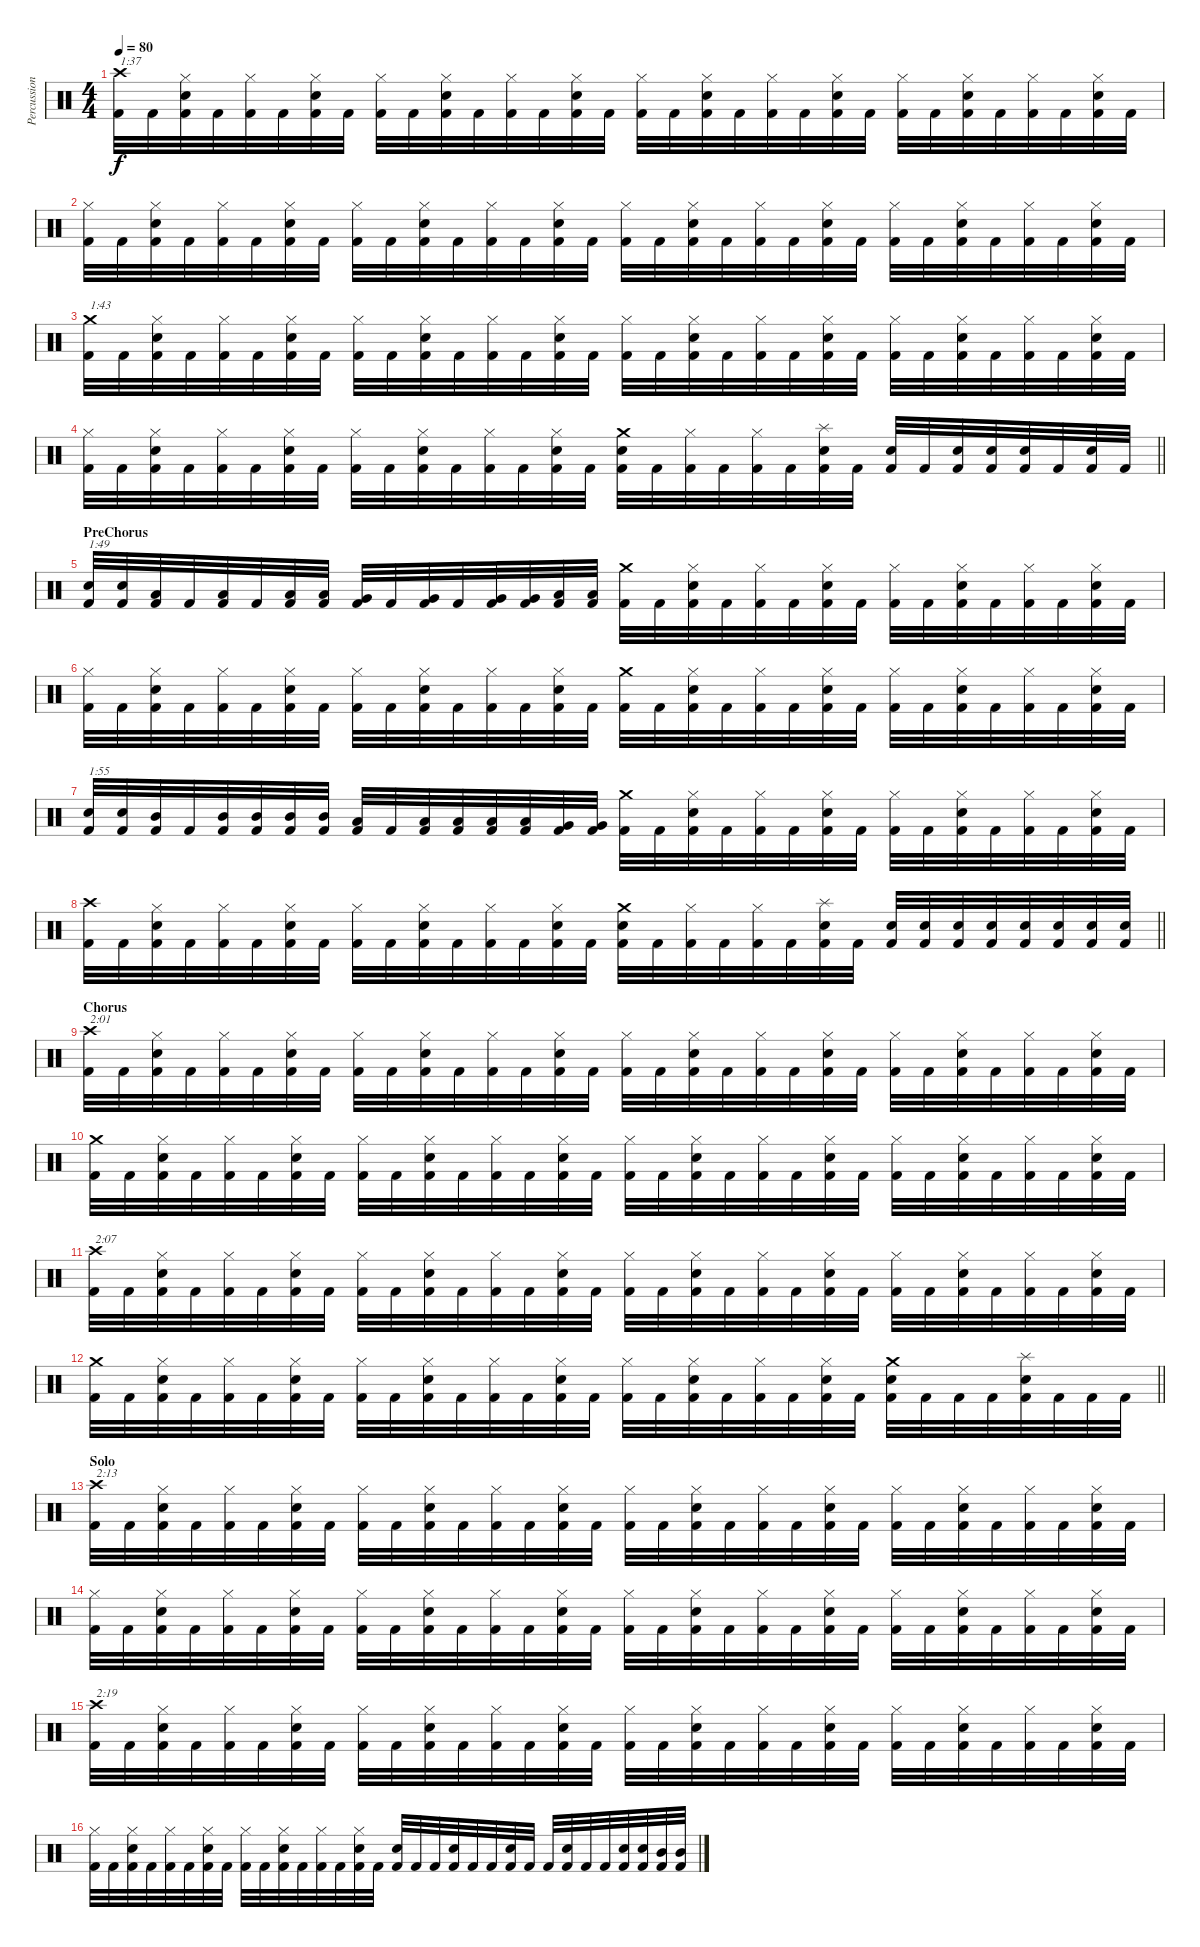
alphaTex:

\track ("Percussion" "Percussion") {instrument percussion}
\staff {score}
\articulation defaults
\ts (4 4)
\tempo 80
\clef neutral
\ks c
("Crash high (hit)" "Kick (hit) 2").32{txt "1:37" dy f} "Kick (hit) 2".32 ("Hi-Hat (closed)" "Snare (hit) 2" "Kick (hit) 2").32 "Kick (hit) 2".32 ("Hi-Hat (closed)" "Kick (hit) 2").32 "Kick (hit) 2".32 ("Hi-Hat (closed)" "Snare (hit) 2" "Kick (hit) 2").32 "Kick (hit) 2".32 ("Hi-Hat (closed)" "Kick (hit) 2").32 "Kick (hit) 2".32 ("Hi-Hat (closed)" "Snare (hit) 2" "Kick (hit) 2").32 "Kick (hit) 2".32 ("Hi-Hat (closed)" "Kick (hit) 2").32 "Kick (hit) 2".32 ("Hi-Hat (closed)" "Snare (hit) 2" "Kick (hit) 2").32 "Kick (hit) 2".32 ("Hi-Hat (closed)" "Kick (hit) 2").32 "Kick (hit) 2".32 ("Hi-Hat (closed)" "Snare (hit) 2" "Kick (hit) 2").32 "Kick (hit) 2".32 ("Hi-Hat (closed)" "Kick (hit) 2").32 "Kick (hit) 2".32 ("Hi-Hat (closed)" "Snare (hit) 2" "Kick (hit) 2").32 "Kick (hit) 2".32 ("Hi-Hat (closed)" "Kick (hit) 2").32 "Kick (hit) 2".32 ("Hi-Hat (closed)" "Snare (hit) 2" "Kick (hit) 2").32 "Kick (hit) 2".32 ("Hi-Hat (closed)" "Kick (hit) 2").32 "Kick (hit) 2".32 ("Hi-Hat (closed)" "Snare (hit) 2" "Kick (hit) 2").32 "Kick (hit) 2".32 |
("Hi-Hat (closed)" "Kick (hit) 2").32 "Kick (hit) 2".32 ("Hi-Hat (closed)" "Snare (hit) 2" "Kick (hit) 2").32 "Kick (hit) 2".32 ("Hi-Hat (closed)" "Kick (hit) 2").32 "Kick (hit) 2".32 ("Hi-Hat (closed)" "Snare (hit) 2" "Kick (hit) 2").32 "Kick (hit) 2".32 ("Hi-Hat (closed)" "Kick (hit) 2").32 "Kick (hit) 2".32 ("Hi-Hat (closed)" "Snare (hit) 2" "Kick (hit) 2").32 "Kick (hit) 2".32 ("Hi-Hat (closed)" "Kick (hit) 2").32 "Kick (hit) 2".32 ("Hi-Hat (closed)" "Snare (hit) 2" "Kick (hit) 2").32 "Kick (hit) 2".32 ("Hi-Hat (closed)" "Kick (hit) 2").32 "Kick (hit) 2".32 ("Hi-Hat (closed)" "Snare (hit) 2" "Kick (hit) 2").32 "Kick (hit) 2".32 ("Hi-Hat (closed)" "Kick (hit) 2").32 "Kick (hit) 2".32 ("Hi-Hat (closed)" "Snare (hit) 2" "Kick (hit) 2").32 "Kick (hit) 2".32 ("Hi-Hat (closed)" "Kick (hit) 2").32 "Kick (hit) 2".32 ("Hi-Hat (closed)" "Snare (hit) 2" "Kick (hit) 2").32 "Kick (hit) 2".32 ("Hi-Hat (closed)" "Kick (hit) 2").32 "Kick (hit) 2".32 ("Hi-Hat (closed)" "Snare (hit) 2" "Kick (hit) 2").32 "Kick (hit) 2".32 |
("Crash medium (hit)" "Kick (hit) 2").32{txt "1:43"} "Kick (hit) 2".32 ("Hi-Hat (closed)" "Snare (hit) 2" "Kick (hit) 2").32 "Kick (hit) 2".32 ("Hi-Hat (closed)" "Kick (hit) 2").32 "Kick (hit) 2".32 ("Hi-Hat (closed)" "Snare (hit) 2" "Kick (hit) 2").32 "Kick (hit) 2".32 ("Hi-Hat (closed)" "Kick (hit) 2").32 "Kick (hit) 2".32 ("Hi-Hat (closed)" "Snare (hit) 2" "Kick (hit) 2").32 "Kick (hit) 2".32 ("Hi-Hat (closed)" "Kick (hit) 2").32 "Kick (hit) 2".32 ("Hi-Hat (closed)" "Snare (hit) 2" "Kick (hit) 2").32 "Kick (hit) 2".32 ("Hi-Hat (closed)" "Kick (hit) 2").32 "Kick (hit) 2".32 ("Hi-Hat (closed)" "Snare (hit) 2" "Kick (hit) 2").32 "Kick (hit) 2".32 ("Hi-Hat (closed)" "Kick (hit) 2").32 "Kick (hit) 2".32 ("Hi-Hat (closed)" "Snare (hit) 2" "Kick (hit) 2").32 "Kick (hit) 2".32 ("Hi-Hat (closed)" "Kick (hit) 2").32 "Kick (hit) 2".32 ("Hi-Hat (closed)" "Snare (hit) 2" "Kick (hit) 2").32 "Kick (hit) 2".32 ("Hi-Hat (closed)" "Kick (hit) 2").32 "Kick (hit) 2".32 ("Hi-Hat (closed)" "Snare (hit) 2" "Kick (hit) 2").32 "Kick (hit) 2".32 |
\barLineRight lightlight
("Hi-Hat (closed)" "Kick (hit) 2").32 "Kick (hit) 2".32 ("Hi-Hat (closed)" "Snare (hit) 2" "Kick (hit) 2").32 "Kick (hit) 2".32 ("Hi-Hat (closed)" "Kick (hit) 2").32 "Kick (hit) 2".32 ("Hi-Hat (closed)" "Snare (hit) 2" "Kick (hit) 2").32 "Kick (hit) 2".32 ("Hi-Hat (closed)" "Kick (hit) 2").32 "Kick (hit) 2".32 ("Hi-Hat (closed)" "Snare (hit) 2" "Kick (hit) 2").32 "Kick (hit) 2".32 ("Hi-Hat (closed)" "Kick (hit) 2").32 "Kick (hit) 2".32 ("Hi-Hat (closed)" "Snare (hit) 2" "Kick (hit) 2").32 "Kick (hit) 2".32 ("Crash medium (hit)" "Snare (hit) 2" "Kick (hit) 2").32 "Kick (hit) 2".32 ("Hi-Hat (closed)" "Kick (hit) 2").32 "Kick (hit) 2".32 ("Hi-Hat (closed)" "Kick (hit) 2").32 "Kick (hit) 2".32 ("Splash (hit)" "Snare (hit) 2" "Kick (hit) 2").32 "Kick (hit) 2".32 ("Snare (hit) 2" "Kick (hit) 2").32 "Kick (hit) 2".32 ("Snare (hit) 2" "Kick (hit) 2").32 ("Snare (hit) 2" "Kick (hit) 2").32 ("Snare (hit) 2" "Kick (hit) 2").32 "Kick (hit) 2".32 ("Snare (hit) 2" "Kick (hit) 2").32 "Kick (hit) 2".32 |
\section ("" "PreChorus")
("Snare (hit) 2" "Kick (hit) 2").32{txt "1:49"} ("Snare (hit) 2" "Kick (hit) 2").32 ("Low Tom (hit)" "Kick (hit) 2").32 "Kick (hit) 2".32 ("Low Tom (hit)" "Kick (hit) 2").32 "Kick (hit) 2".32 ("Low Tom (hit)" "Kick (hit) 2").32 ("Low Tom (hit)" "Kick (hit) 2").32 ("Very Low Tom (hit)" "Kick (hit) 2").32 "Kick (hit) 2".32 ("Very Low Tom (hit)" "Kick (hit) 2").32 "Kick (hit) 2".32 ("Very Low Tom (hit)" "Kick (hit) 2").32 ("Very Low Tom (hit)" "Kick (hit) 2").32 ("Low Floor Tom (hit)" "Kick (hit) 2").32 ("Low Floor Tom (hit)" "Kick (hit) 2").32 ("Crash medium (hit)" "Kick (hit) 2").32 "Kick (hit) 2".32 ("Hi-Hat (closed)" "Snare (hit) 2" "Kick (hit) 2").32 "Kick (hit) 2".32 ("Hi-Hat (closed)" "Kick (hit) 2").32 "Kick (hit) 2".32 ("Hi-Hat (closed)" "Snare (hit) 2" "Kick (hit) 2").32 "Kick (hit) 2".32 ("Hi-Hat (closed)" "Kick (hit) 2").32 "Kick (hit) 2".32 ("Hi-Hat (closed)" "Snare (hit) 2" "Kick (hit) 2").32 "Kick (hit) 2".32 ("Hi-Hat (closed)" "Kick (hit) 2").32 "Kick (hit) 2".32 ("Hi-Hat (closed)" "Snare (hit) 2" "Kick (hit) 2").32 "Kick (hit) 2".32 |
("Hi-Hat (closed)" "Kick (hit) 2").32 "Kick (hit) 2".32 ("Hi-Hat (closed)" "Snare (hit) 2" "Kick (hit) 2").32 "Kick (hit) 2".32 ("Hi-Hat (closed)" "Kick (hit) 2").32 "Kick (hit) 2".32 ("Hi-Hat (closed)" "Snare (hit) 2" "Kick (hit) 2").32 "Kick (hit) 2".32 ("Hi-Hat (closed)" "Kick (hit) 2").32 "Kick (hit) 2".32 ("Hi-Hat (closed)" "Snare (hit) 2" "Kick (hit) 2").32 "Kick (hit) 2".32 ("Hi-Hat (closed)" "Kick (hit) 2").32 "Kick (hit) 2".32 ("Hi-Hat (closed)" "Snare (hit) 2" "Kick (hit) 2").32 "Kick (hit) 2".32 ("Crash medium (hit)" "Kick (hit) 2").32 "Kick (hit) 2".32 ("Hi-Hat (closed)" "Snare (hit) 2" "Kick (hit) 2").32 "Kick (hit) 2".32 ("Hi-Hat (closed)" "Kick (hit) 2").32 "Kick (hit) 2".32 ("Hi-Hat (closed)" "Snare (hit) 2" "Kick (hit) 2").32 "Kick (hit) 2".32 ("Hi-Hat (closed)" "Kick (hit) 2").32 "Kick (hit) 2".32 ("Hi-Hat (closed)" "Snare (hit) 2" "Kick (hit) 2").32 "Kick (hit) 2".32 ("Hi-Hat (closed)" "Kick (hit) 2").32 "Kick (hit) 2".32 ("Hi-Hat (closed)" "Snare (hit) 2" "Kick (hit) 2").32 "Kick (hit) 2".32 |
("Snare (hit) 2" "Kick (hit) 2").32{txt "1:55"} ("Snare (hit) 2" "Kick (hit) 2").32 ("Mid Tom (hit)" "Kick (hit) 2").32 "Kick (hit) 2".32 ("Mid Tom (hit)" "Kick (hit) 2").32 ("Mid Tom (hit)" "Kick (hit) 2").32 ("Mid Tom (hit)" "Kick (hit) 2").32 ("Mid Tom (hit)" "Kick (hit) 2").32 ("Low Tom (hit)" "Kick (hit) 2").32 "Kick (hit) 2".32 ("Low Tom (hit)" "Kick (hit) 2").32 ("Low Tom (hit)" "Kick (hit) 2").32 ("Low Tom (hit)" "Kick (hit) 2").32 ("Low Tom (hit)" "Kick (hit) 2").32 ("Very Low Tom (hit)" "Kick (hit) 2").32 ("Very Low Tom (hit)" "Kick (hit) 2").32 ("Crash medium (hit)" "Kick (hit) 2").32 "Kick (hit) 2".32 ("Hi-Hat (closed)" "Snare (hit) 2" "Kick (hit) 2").32 "Kick (hit) 2".32 ("Hi-Hat (closed)" "Kick (hit) 2").32 "Kick (hit) 2".32 ("Hi-Hat (closed)" "Snare (hit) 2" "Kick (hit) 2").32 "Kick (hit) 2".32 ("Hi-Hat (closed)" "Kick (hit) 2").32 "Kick (hit) 2".32 ("Hi-Hat (closed)" "Snare (hit) 2" "Kick (hit) 2").32 "Kick (hit) 2".32 ("Hi-Hat (closed)" "Kick (hit) 2").32 "Kick (hit) 2".32 ("Hi-Hat (closed)" "Snare (hit) 2" "Kick (hit) 2").32 "Kick (hit) 2".32 |
\barLineRight lightlight
("Crash high (hit)" "Kick (hit) 2").32 "Kick (hit) 2".32 ("Hi-Hat (closed)" "Snare (hit) 2" "Kick (hit) 2").32 "Kick (hit) 2".32 ("Hi-Hat (closed)" "Kick (hit) 2").32 "Kick (hit) 2".32 ("Hi-Hat (closed)" "Snare (hit) 2" "Kick (hit) 2").32 "Kick (hit) 2".32 ("Hi-Hat (closed)" "Kick (hit) 2").32 "Kick (hit) 2".32 ("Hi-Hat (closed)" "Snare (hit) 2" "Kick (hit) 2").32 "Kick (hit) 2".32 ("Hi-Hat (closed)" "Kick (hit) 2").32 "Kick (hit) 2".32 ("Hi-Hat (closed)" "Snare (hit) 2" "Kick (hit) 2").32 "Kick (hit) 2".32 ("Crash medium (hit)" "Snare (hit) 2" "Kick (hit) 2").32 "Kick (hit) 2".32 ("Hi-Hat (closed)" "Kick (hit) 2").32 "Kick (hit) 2".32 ("Hi-Hat (closed)" "Kick (hit) 2").32 "Kick (hit) 2".32 ("Splash (hit)" "Snare (hit) 2" "Kick (hit) 2").32 "Kick (hit) 2".32 ("Snare (hit) 2" "Kick (hit) 2").32 ("Snare (hit) 2" "Kick (hit) 2").32 ("Snare (hit) 2" "Kick (hit) 2").32 ("Snare (hit) 2" "Kick (hit) 2").32 ("Snare (hit) 2" "Kick (hit) 2").32 ("Snare (hit) 2" "Kick (hit) 2").32 ("Snare (hit) 2" "Kick (hit) 2").32 ("Snare (hit) 2" "Kick (hit) 2").32 |
\section ("" "Chorus")
("Crash high (hit)" "Kick (hit) 2").32{txt "2:01"} "Kick (hit) 2".32 ("Hi-Hat (closed)" "Snare (hit) 2" "Kick (hit) 2").32 "Kick (hit) 2".32 ("Hi-Hat (closed)" "Kick (hit) 2").32 "Kick (hit) 2".32 ("Hi-Hat (closed)" "Snare (hit) 2" "Kick (hit) 2").32 "Kick (hit) 2".32 ("Hi-Hat (closed)" "Kick (hit) 2").32 "Kick (hit) 2".32 ("Hi-Hat (closed)" "Snare (hit) 2" "Kick (hit) 2").32 "Kick (hit) 2".32 ("Hi-Hat (closed)" "Kick (hit) 2").32 "Kick (hit) 2".32 ("Hi-Hat (closed)" "Snare (hit) 2" "Kick (hit) 2").32 "Kick (hit) 2".32 ("Hi-Hat (closed)" "Kick (hit) 2").32 "Kick (hit) 2".32 ("Hi-Hat (closed)" "Snare (hit) 2" "Kick (hit) 2").32 "Kick (hit) 2".32 ("Hi-Hat (closed)" "Kick (hit) 2").32 "Kick (hit) 2".32 ("Hi-Hat (closed)" "Snare (hit) 2" "Kick (hit) 2").32 "Kick (hit) 2".32 ("Hi-Hat (closed)" "Kick (hit) 2").32 "Kick (hit) 2".32 ("Hi-Hat (closed)" "Snare (hit) 2" "Kick (hit) 2").32 "Kick (hit) 2".32 ("Hi-Hat (closed)" "Kick (hit) 2").32 "Kick (hit) 2".32 ("Hi-Hat (closed)" "Snare (hit) 2" "Kick (hit) 2").32 "Kick (hit) 2".32 |
("Crash medium (hit)" "Kick (hit) 2").32 "Kick (hit) 2".32 ("Hi-Hat (closed)" "Snare (hit) 2" "Kick (hit) 2").32 "Kick (hit) 2".32 ("Hi-Hat (closed)" "Kick (hit) 2").32 "Kick (hit) 2".32 ("Hi-Hat (closed)" "Snare (hit) 2" "Kick (hit) 2").32 "Kick (hit) 2".32 ("Hi-Hat (closed)" "Kick (hit) 2").32 "Kick (hit) 2".32 ("Hi-Hat (closed)" "Snare (hit) 2" "Kick (hit) 2").32 "Kick (hit) 2".32 ("Hi-Hat (closed)" "Kick (hit) 2").32 "Kick (hit) 2".32 ("Hi-Hat (closed)" "Snare (hit) 2" "Kick (hit) 2").32 "Kick (hit) 2".32 ("Hi-Hat (closed)" "Kick (hit) 2").32 "Kick (hit) 2".32 ("Hi-Hat (closed)" "Snare (hit) 2" "Kick (hit) 2").32 "Kick (hit) 2".32 ("Hi-Hat (closed)" "Kick (hit) 2").32 "Kick (hit) 2".32 ("Hi-Hat (closed)" "Snare (hit) 2" "Kick (hit) 2").32 "Kick (hit) 2".32 ("Hi-Hat (closed)" "Kick (hit) 2").32 "Kick (hit) 2".32 ("Hi-Hat (closed)" "Snare (hit) 2" "Kick (hit) 2").32 "Kick (hit) 2".32 ("Hi-Hat (closed)" "Kick (hit) 2").32 "Kick (hit) 2".32 ("Hi-Hat (closed)" "Snare (hit) 2" "Kick (hit) 2").32 "Kick (hit) 2".32 |
("Crash high (hit)" "Kick (hit) 2").32{txt "2:07"} "Kick (hit) 2".32 ("Hi-Hat (closed)" "Snare (hit) 2" "Kick (hit) 2").32 "Kick (hit) 2".32 ("Hi-Hat (closed)" "Kick (hit) 2").32 "Kick (hit) 2".32 ("Hi-Hat (closed)" "Snare (hit) 2" "Kick (hit) 2").32 "Kick (hit) 2".32 ("Hi-Hat (closed)" "Kick (hit) 2").32 "Kick (hit) 2".32 ("Hi-Hat (closed)" "Snare (hit) 2" "Kick (hit) 2").32 "Kick (hit) 2".32 ("Hi-Hat (closed)" "Kick (hit) 2").32 "Kick (hit) 2".32 ("Hi-Hat (closed)" "Snare (hit) 2" "Kick (hit) 2").32 "Kick (hit) 2".32 ("Hi-Hat (closed)" "Kick (hit) 2").32 "Kick (hit) 2".32 ("Hi-Hat (closed)" "Snare (hit) 2" "Kick (hit) 2").32 "Kick (hit) 2".32 ("Hi-Hat (closed)" "Kick (hit) 2").32 "Kick (hit) 2".32 ("Hi-Hat (closed)" "Snare (hit) 2" "Kick (hit) 2").32 "Kick (hit) 2".32 ("Hi-Hat (closed)" "Kick (hit) 2").32 "Kick (hit) 2".32 ("Hi-Hat (closed)" "Snare (hit) 2" "Kick (hit) 2").32 "Kick (hit) 2".32 ("Hi-Hat (closed)" "Kick (hit) 2").32 "Kick (hit) 2".32 ("Hi-Hat (closed)" "Snare (hit) 2" "Kick (hit) 2").32 "Kick (hit) 2".32 |
\barLineRight lightlight
("Crash medium (hit)" "Kick (hit) 2").32 "Kick (hit) 2".32 ("Hi-Hat (closed)" "Snare (hit) 2" "Kick (hit) 2").32 "Kick (hit) 2".32 ("Hi-Hat (closed)" "Kick (hit) 2").32 "Kick (hit) 2".32 ("Hi-Hat (closed)" "Snare (hit) 2" "Kick (hit) 2").32 "Kick (hit) 2".32 ("Hi-Hat (closed)" "Kick (hit) 2").32 "Kick (hit) 2".32 ("Hi-Hat (closed)" "Snare (hit) 2" "Kick (hit) 2").32 "Kick (hit) 2".32 ("Hi-Hat (closed)" "Kick (hit) 2").32 "Kick (hit) 2".32 ("Hi-Hat (closed)" "Snare (hit) 2" "Kick (hit) 2").32 "Kick (hit) 2".32 ("Hi-Hat (closed)" "Kick (hit) 2").32 "Kick (hit) 2".32 ("Hi-Hat (closed)" "Snare (hit) 2" "Kick (hit) 2").32 "Kick (hit) 2".32 ("Hi-Hat (closed)" "Kick (hit) 2").32 "Kick (hit) 2".32 ("Hi-Hat (closed)" "Snare (hit) 2" "Kick (hit) 2").32 "Kick (hit) 2".32 ("Crash medium (hit)" "Snare (hit) 2" "Kick (hit) 2").32 "Kick (hit) 2".32 "Kick (hit) 2".32 "Kick (hit) 2".32 ("Splash (hit)" "Snare (hit) 2" "Kick (hit) 2").32 "Kick (hit) 2".32 "Kick (hit) 2".32 "Kick (hit) 2".32 |
\section ("" "Solo")
("Crash high (hit)" "Kick (hit) 2").32{txt "2:13"} "Kick (hit) 2".32 ("Hi-Hat (closed)" "Snare (hit) 2" "Kick (hit) 2").32 "Kick (hit) 2".32 ("Hi-Hat (closed)" "Kick (hit) 2").32 "Kick (hit) 2".32 ("Hi-Hat (closed)" "Snare (hit) 2" "Kick (hit) 2").32 "Kick (hit) 2".32 ("Hi-Hat (closed)" "Kick (hit) 2").32 "Kick (hit) 2".32 ("Hi-Hat (closed)" "Snare (hit) 2" "Kick (hit) 2").32 "Kick (hit) 2".32 ("Hi-Hat (closed)" "Kick (hit) 2").32 "Kick (hit) 2".32 ("Hi-Hat (closed)" "Snare (hit) 2" "Kick (hit) 2").32 "Kick (hit) 2".32 ("Hi-Hat (closed)" "Kick (hit) 2").32 "Kick (hit) 2".32 ("Hi-Hat (closed)" "Snare (hit) 2" "Kick (hit) 2").32 "Kick (hit) 2".32 ("Hi-Hat (closed)" "Kick (hit) 2").32 "Kick (hit) 2".32 ("Hi-Hat (closed)" "Snare (hit) 2" "Kick (hit) 2").32 "Kick (hit) 2".32 ("Hi-Hat (closed)" "Kick (hit) 2").32 "Kick (hit) 2".32 ("Hi-Hat (closed)" "Snare (hit) 2" "Kick (hit) 2").32 "Kick (hit) 2".32 ("Hi-Hat (closed)" "Kick (hit) 2").32 "Kick (hit) 2".32 ("Hi-Hat (closed)" "Snare (hit) 2" "Kick (hit) 2").32 "Kick (hit) 2".32 |
("Hi-Hat (closed)" "Kick (hit) 2").32 "Kick (hit) 2".32 ("Hi-Hat (closed)" "Snare (hit) 2" "Kick (hit) 2").32 "Kick (hit) 2".32 ("Hi-Hat (closed)" "Kick (hit) 2").32 "Kick (hit) 2".32 ("Hi-Hat (closed)" "Snare (hit) 2" "Kick (hit) 2").32 "Kick (hit) 2".32 ("Hi-Hat (closed)" "Kick (hit) 2").32 "Kick (hit) 2".32 ("Hi-Hat (closed)" "Snare (hit) 2" "Kick (hit) 2").32 "Kick (hit) 2".32 ("Hi-Hat (closed)" "Kick (hit) 2").32 "Kick (hit) 2".32 ("Hi-Hat (closed)" "Snare (hit) 2" "Kick (hit) 2").32 "Kick (hit) 2".32 ("Hi-Hat (closed)" "Kick (hit) 2").32 "Kick (hit) 2".32 ("Hi-Hat (closed)" "Snare (hit) 2" "Kick (hit) 2").32 "Kick (hit) 2".32 ("Hi-Hat (closed)" "Kick (hit) 2").32 "Kick (hit) 2".32 ("Hi-Hat (closed)" "Snare (hit) 2" "Kick (hit) 2").32 "Kick (hit) 2".32 ("Hi-Hat (closed)" "Kick (hit) 2").32 "Kick (hit) 2".32 ("Hi-Hat (closed)" "Snare (hit) 2" "Kick (hit) 2").32 "Kick (hit) 2".32 ("Hi-Hat (closed)" "Kick (hit) 2").32 "Kick (hit) 2".32 ("Hi-Hat (closed)" "Snare (hit) 2" "Kick (hit) 2").32 "Kick (hit) 2".32 |
("Crash high (hit)" "Kick (hit) 2").32{txt "2:19"} "Kick (hit) 2".32 ("Hi-Hat (closed)" "Snare (hit) 2" "Kick (hit) 2").32 "Kick (hit) 2".32 ("Hi-Hat (closed)" "Kick (hit) 2").32 "Kick (hit) 2".32 ("Hi-Hat (closed)" "Snare (hit) 2" "Kick (hit) 2").32 "Kick (hit) 2".32 ("Hi-Hat (closed)" "Kick (hit) 2").32 "Kick (hit) 2".32 ("Hi-Hat (closed)" "Snare (hit) 2" "Kick (hit) 2").32 "Kick (hit) 2".32 ("Hi-Hat (closed)" "Kick (hit) 2").32 "Kick (hit) 2".32 ("Hi-Hat (closed)" "Snare (hit) 2" "Kick (hit) 2").32 "Kick (hit) 2".32 ("Hi-Hat (closed)" "Kick (hit) 2").32 "Kick (hit) 2".32 ("Hi-Hat (closed)" "Snare (hit) 2" "Kick (hit) 2").32 "Kick (hit) 2".32 ("Hi-Hat (closed)" "Kick (hit) 2").32 "Kick (hit) 2".32 ("Hi-Hat (closed)" "Snare (hit) 2" "Kick (hit) 2").32 "Kick (hit) 2".32 ("Hi-Hat (closed)" "Kick (hit) 2").32 "Kick (hit) 2".32 ("Hi-Hat (closed)" "Snare (hit) 2" "Kick (hit) 2").32 "Kick (hit) 2".32 ("Hi-Hat (closed)" "Kick (hit) 2").32 "Kick (hit) 2".32 ("Hi-Hat (closed)" "Snare (hit) 2" "Kick (hit) 2").32 "Kick (hit) 2".32 |
("Hi-Hat (closed)" "Kick (hit) 2").32 "Kick (hit) 2".32 ("Hi-Hat (closed)" "Snare (hit) 2" "Kick (hit) 2").32 "Kick (hit) 2".32 ("Hi-Hat (closed)" "Kick (hit) 2").32 "Kick (hit) 2".32 ("Hi-Hat (closed)" "Snare (hit) 2" "Kick (hit) 2").32 "Kick (hit) 2".32 ("Hi-Hat (closed)" "Kick (hit) 2").32 "Kick (hit) 2".32 ("Hi-Hat (closed)" "Snare (hit) 2" "Kick (hit) 2").32 "Kick (hit) 2".32 ("Hi-Hat (closed)" "Kick (hit) 2").32 "Kick (hit) 2".32 ("Hi-Hat (closed)" "Snare (hit) 2" "Kick (hit) 2").32 "Kick (hit) 2".32 ("Snare (hit) 2" "Kick (hit) 2").32 "Kick (hit) 2".32 "Kick (hit) 2".32 ("Snare (hit) 2" "Kick (hit) 2").32 "Kick (hit) 2".32 "Kick (hit) 2".32 ("Snare (hit) 2" "Kick (hit) 2").32 "Kick (hit) 2".32 "Kick (hit) 2".32 ("Snare (hit) 2" "Kick (hit) 2").32 "Kick (hit) 2".32 "Kick (hit) 2".32 ("Snare (hit) 2" "Kick (hit) 2").32 ("Snare (hit) 2" "Kick (hit) 2").32 ("Mid Tom (hit)" "Kick (hit) 2").32 ("Mid Tom (hit)" "Kick (hit) 2").32
